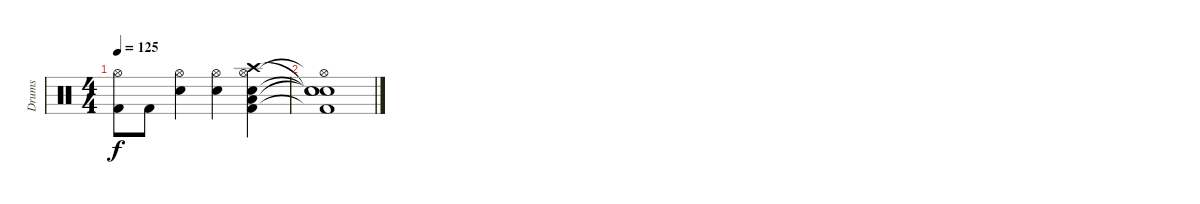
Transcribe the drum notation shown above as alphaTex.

\track ("Drums" "Drums") {instrument percussion}
\staff {score}
\articulation defaults
\ts (4 4)
\tempo 125
\clef neutral
\ks c
("Hi-Hat (open)" "Kick (hit) 2").8{dy f} "Kick (hit) 2".8 ("Hi-Hat (open)" "Electric Snare (hit)").4 ("Hi-Hat (open)" "Electric Snare (hit)").4 ("Crash high (hit)" "Hi-Hat (open)" "Low Tom (hit)" "Electric Snare (hit)" "Kick (hit) 2").4 |
("Snare (hit)"{t} "Hi-Hat (open)"{t} "Snare (hit)"{t} "Snare (hit)"{t} "Kick (hit) 2"{t}).1
